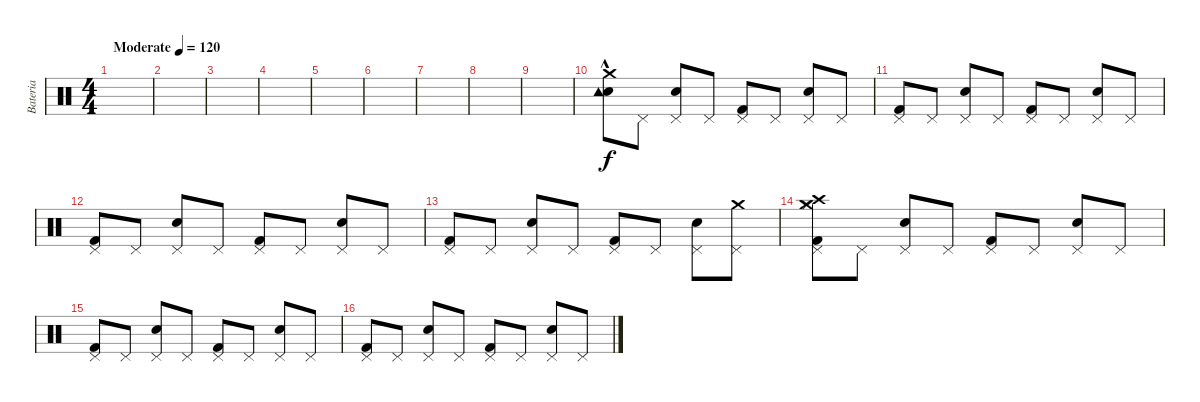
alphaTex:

\track ("Bateria" "Bateria") {instrument percussion}
\staff {score}
\articulation defaults
\ts (4 4)
\tempo (120 "Moderate")
\clef neutral
\ks c
|
|
|
|
|
|
|
|
|
("Electric Snare (hit)"{hac} "Tambourine (hit)" "Crash medium (hit)").8 "Pedal Hi-Hat (hit)".8{dy f} ("Pedal Hi-Hat (hit)" "Electric Snare (hit)").8 "Pedal Hi-Hat (hit)".8 ("Pedal Hi-Hat (hit)" "Kick (hit) 2").8 "Pedal Hi-Hat (hit)".8 ("Pedal Hi-Hat (hit)" "Electric Snare (hit)").8 "Pedal Hi-Hat (hit)".8 |
("Pedal Hi-Hat (hit)" "Kick (hit) 2").8 "Pedal Hi-Hat (hit)".8 ("Pedal Hi-Hat (hit)" "Electric Snare (hit)").8 "Pedal Hi-Hat (hit)".8 ("Pedal Hi-Hat (hit)" "Kick (hit) 2").8 "Pedal Hi-Hat (hit)".8 ("Pedal Hi-Hat (hit)" "Electric Snare (hit)").8 "Pedal Hi-Hat (hit)".8 |
("Pedal Hi-Hat (hit)" "Kick (hit) 2").8 "Pedal Hi-Hat (hit)".8 ("Pedal Hi-Hat (hit)" "Electric Snare (hit)").8 "Pedal Hi-Hat (hit)".8 ("Pedal Hi-Hat (hit)" "Kick (hit) 2").8 "Pedal Hi-Hat (hit)".8 ("Pedal Hi-Hat (hit)" "Electric Snare (hit)").8 "Pedal Hi-Hat (hit)".8 |
("Pedal Hi-Hat (hit)" "Kick (hit) 2").8 "Pedal Hi-Hat (hit)".8 ("Pedal Hi-Hat (hit)" "Electric Snare (hit)").8 "Pedal Hi-Hat (hit)".8 ("Pedal Hi-Hat (hit)" "Kick (hit) 2").8 "Pedal Hi-Hat (hit)".8 ("Pedal Hi-Hat (hit)" "Electric Snare (hit)").8 ("Pedal Hi-Hat (hit)" "Crash medium (hit)").8 |
("Pedal Hi-Hat (hit)" "Kick (hit) 2" "Crash medium (hit)" "Crash high (hit)" "Hi-Hat (closed)").8 "Pedal Hi-Hat (hit)".8 ("Pedal Hi-Hat (hit)" "Electric Snare (hit)").8 "Pedal Hi-Hat (hit)".8 ("Pedal Hi-Hat (hit)" "Kick (hit) 2").8 "Pedal Hi-Hat (hit)".8 ("Pedal Hi-Hat (hit)" "Electric Snare (hit)").8 "Pedal Hi-Hat (hit)".8 |
("Pedal Hi-Hat (hit)" "Kick (hit) 2").8 "Pedal Hi-Hat (hit)".8 ("Pedal Hi-Hat (hit)" "Electric Snare (hit)").8 "Pedal Hi-Hat (hit)".8 ("Pedal Hi-Hat (hit)" "Kick (hit) 2").8 "Pedal Hi-Hat (hit)".8 ("Pedal Hi-Hat (hit)" "Electric Snare (hit)").8 "Pedal Hi-Hat (hit)".8 |
("Pedal Hi-Hat (hit)" "Kick (hit) 2").8 "Pedal Hi-Hat (hit)".8 ("Pedal Hi-Hat (hit)" "Electric Snare (hit)").8 "Pedal Hi-Hat (hit)".8 ("Pedal Hi-Hat (hit)" "Kick (hit) 2").8 "Pedal Hi-Hat (hit)".8 ("Pedal Hi-Hat (hit)" "Electric Snare (hit)").8 "Pedal Hi-Hat (hit)".8
